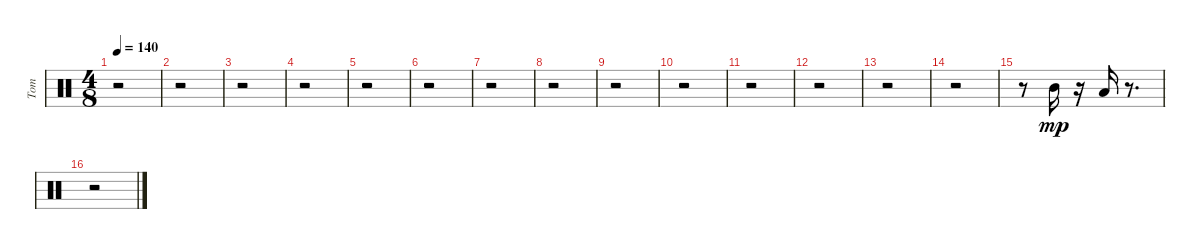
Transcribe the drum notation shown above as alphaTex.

\track ("Tom" "Tom") {instrument percussion}
\staff {score}
\articulation defaults
\ts (4 8)
\tempo 140
\clef neutral
\ks c
r.2{dy f} |
r.2 |
r.2 |
r.2 |
r.2 |
r.2 |
r.2 |
r.2 |
r.2 |
r.2 |
r.2 |
r.2 |
r.2 |
r.2 |
r.8 "Mid Tom (hit)".16{dy mp} r.16 "Low Tom (hit)".16 r.8{d} |
r.2
